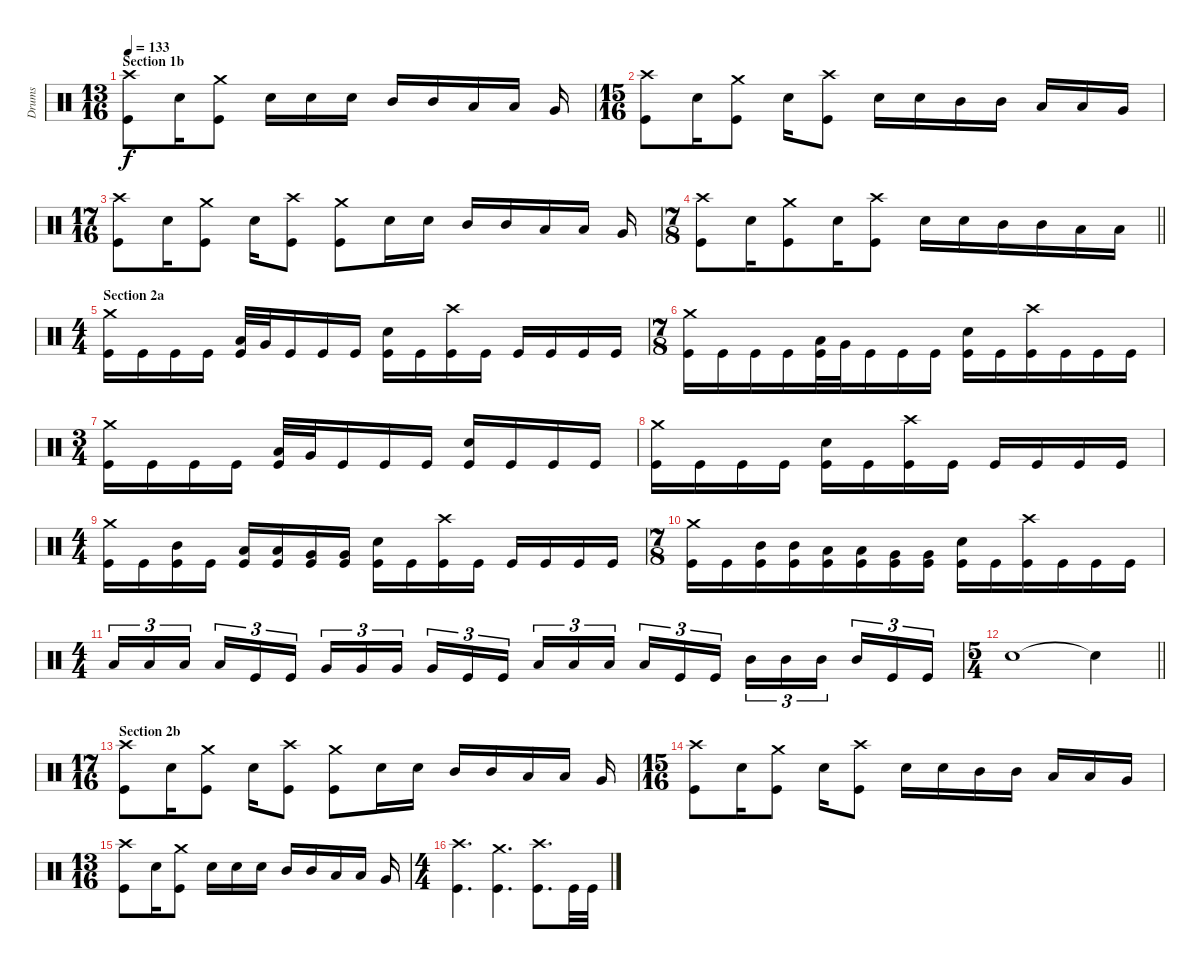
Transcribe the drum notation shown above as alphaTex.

\track ("Drums" "Drums") {instrument percussion}
\staff {score}
\articulation defaults
\ts (13 16)
\section ("" "Section 1b")
\tempo 133
\clef neutral
\ks c
("Crash high (hit)" "Kick (hit)").8{dy f} "Snare (hit) 2".16 ("Crash medium (hit)" "Kick (hit)").8 "Snare (hit) 2".16 "Snare (hit) 2".16 "Snare (hit) 2".16 "Mid Tom (hit)".16 "Mid Tom (hit)".16 "Low Tom (hit)".16 "Low Tom (hit)".16 "Very Low Tom (hit)".16 |
\ts (15 16)
("Crash high (hit)" "Kick (hit)").8 "Snare (hit) 2".16 ("Crash medium (hit)" "Kick (hit)").8 "Snare (hit) 2".16 ("Crash high (hit)" "Kick (hit)").8 "Snare (hit) 2".16 "Snare (hit) 2".16 "Mid Tom (hit)".16 "Mid Tom (hit)".16 "Low Tom (hit)".16 "Low Tom (hit)".16 "Very Low Tom (hit)".16 |
\ts (17 16)
("Crash high (hit)" "Kick (hit)").8 "Snare (hit) 2".16 ("Crash medium (hit)" "Kick (hit)").8 "Snare (hit) 2".16 ("Crash high (hit)" "Kick (hit)").8 ("Crash medium (hit)" "Kick (hit)").8 "Snare (hit) 2".16 "Snare (hit) 2".16 "Mid Tom (hit)".16 "Mid Tom (hit)".16 "Low Tom (hit)".16 "Low Tom (hit)".16 "Very Low Tom (hit)".16 |
\ts (7 8)
\barLineRight lightlight
("Crash high (hit)" "Kick (hit)").8 "Snare (hit) 2".16 ("Crash medium (hit)" "Kick (hit)").8 "Snare (hit) 2".16 ("Crash high (hit)" "Kick (hit)").8 "Snare (hit) 2".16 "Snare (hit) 2".16 "Mid Tom (hit)".16 "Mid Tom (hit)".16 "Low Tom (hit)".16 "Low Tom (hit)".16 |
\ts (4 4)
\section ("" "Section 2a")
("Crash medium (hit)" "Kick (hit)").16 "Kick (hit)".16 "Kick (hit)".16 "Kick (hit)".16 ("Low Tom (hit)" "Kick (hit)").32 "Very Low Tom (hit)".32 "Kick (hit)".16 "Kick (hit)".16 "Kick (hit)".16 ("Snare (hit) 2" "Kick (hit)").16 "Kick (hit)".16 ("Crash high (hit)" "Kick (hit)").16 "Kick (hit)".16 "Kick (hit)".16 "Kick (hit)".16 "Kick (hit)".16 "Kick (hit)".16 |
\ts (7 8)
("Crash medium (hit)" "Kick (hit)").16 "Kick (hit)".16 "Kick (hit)".16 "Kick (hit)".16 ("Low Tom (hit)" "Kick (hit)").32 "Very Low Tom (hit)".32 "Kick (hit)".16 "Kick (hit)".16 "Kick (hit)".16 ("Snare (hit) 2" "Kick (hit)").16 "Kick (hit)".16 ("Crash high (hit)" "Kick (hit)").16 "Kick (hit)".16 "Kick (hit)".16 "Kick (hit)".16 |
\ts (3 4)
("Crash medium (hit)" "Kick (hit)").16 "Kick (hit)".16 "Kick (hit)".16 "Kick (hit)".16 ("Low Tom (hit)" "Kick (hit)").32 "Very Low Tom (hit)".32 "Kick (hit)".16 "Kick (hit)".16 "Kick (hit)".16 ("Snare (hit) 2" "Kick (hit)").16 "Kick (hit)".16 "Kick (hit)".16 "Kick (hit)".16 |
("Crash medium (hit)" "Kick (hit)").16 "Kick (hit)".16 "Kick (hit)".16 "Kick (hit)".16 ("Snare (hit) 2" "Kick (hit)").16 "Kick (hit)".16 ("Crash high (hit)" "Kick (hit)").16 "Kick (hit)".16 "Kick (hit)".16 "Kick (hit)".16 "Kick (hit)".16 "Kick (hit)".16 |
\ts (4 4)
("Crash medium (hit)" "Kick (hit)").16 "Kick (hit)".16 ("Mid Tom (hit)" "Kick (hit)").16 "Kick (hit)".16 ("Low Tom (hit)" "Kick (hit)").16 ("Low Tom (hit)" "Kick (hit)").16 ("Very Low Tom (hit)" "Kick (hit)").16 ("Very Low Tom (hit)" "Kick (hit)").16 ("Snare (hit) 2" "Kick (hit)").16 "Kick (hit)".16 ("Crash high (hit)" "Kick (hit)").16 "Kick (hit)".16 "Kick (hit)".16 "Kick (hit)".16 "Kick (hit)".16 "Kick (hit)".16 |
\ts (7 8)
("Crash medium (hit)" "Kick (hit)").16 "Kick (hit)".16 ("Mid Tom (hit)" "Kick (hit)").16 ("Mid Tom (hit)" "Kick (hit)").16 ("Low Tom (hit)" "Kick (hit)").16 ("Low Tom (hit)" "Kick (hit)").16 ("Very Low Tom (hit)" "Kick (hit)").16 ("Very Low Tom (hit)" "Kick (hit)").16 ("Snare (hit) 2" "Kick (hit)").16 "Kick (hit)".16 ("Crash high (hit)" "Kick (hit)").16 "Kick (hit)".16 "Kick (hit)".16 "Kick (hit)".16 |
\ts (4 4)
"Low Floor Tom (hit)".16{tu (3 2)} "Low Floor Tom (hit)".16{tu (3 2)} "Low Floor Tom (hit)".16{tu (3 2) beam splitsecondary} "Low Floor Tom (hit)".16{tu (3 2)} "Kick (hit)".16{tu (3 2)} "Kick (hit)".16{tu (3 2)} "Very Low Tom (hit)".16{tu (3 2)} "Very Low Tom (hit)".16{tu (3 2)} "Very Low Tom (hit)".16{tu (3 2) beam splitsecondary} "Very Low Tom (hit)".16{tu (3 2)} "Kick (hit)".16{tu (3 2)} "Kick (hit)".16{tu (3 2)} "Low Tom (hit)".16{tu (3 2)} "Low Tom (hit)".16{tu (3 2)} "Low Tom (hit)".16{tu (3 2) beam splitsecondary} "Low Tom (hit)".16{tu (3 2)} "Kick (hit)".16{tu (3 2)} "Kick (hit)".16{tu (3 2)} "Mid Tom (hit)".16{tu (3 2)} "Mid Tom (hit)".16{tu (3 2)} "Mid Tom (hit)".16{tu (3 2) beam splitsecondary} "Mid Tom (hit)".16{tu (3 2)} "Kick (hit)".16{tu (3 2)} "Kick (hit)".16{tu (3 2)} |
\ts (5 4)
\barLineRight lightlight "Snare (hit) 2".1 "Snare (hit)"{t}.4
|
\ts (17 16)
\section ("" "Section 2b")
("Crash high (hit)" "Kick (hit)").8 "Snare (hit) 2".16 ("Crash medium (hit)" "Kick (hit)").8 "Snare (hit) 2".16 ("Crash high (hit)" "Kick (hit)").8 ("Crash medium (hit)" "Kick (hit)").8 "Snare (hit) 2".16 "Snare (hit) 2".16 "Mid Tom (hit)".16 "Mid Tom (hit)".16 "Low Tom (hit)".16 "Low Tom (hit)".16 "Very Low Tom (hit)".16 |
\ts (15 16)
("Crash high (hit)" "Kick (hit)").8 "Snare (hit) 2".16 ("Crash medium (hit)" "Kick (hit)").8 "Snare (hit) 2".16 ("Crash high (hit)" "Kick (hit)").8 "Snare (hit) 2".16 "Snare (hit) 2".16 "Mid Tom (hit)".16 "Mid Tom (hit)".16 "Low Tom (hit)".16 "Low Tom (hit)".16 "Very Low Tom (hit)".16 |
\ts (13 16)
("Crash high (hit)" "Kick (hit)").8 "Snare (hit) 2".16 ("Crash medium (hit)" "Kick (hit)").8 "Snare (hit) 2".16 "Snare (hit) 2".16 "Snare (hit) 2".16 "Mid Tom (hit)".16 "Mid Tom (hit)".16 "Low Tom (hit)".16 "Low Tom (hit)".16 "Very Low Tom (hit)".16 |
\ts (4 4)
("Crash high (hit)" "Kick (hit)").4{d} ("Crash medium (hit)" "Kick (hit)").4{d} ("Crash high (hit)" "Kick (hit)").8{d} "Kick (hit)".32 "Kick (hit)".32
